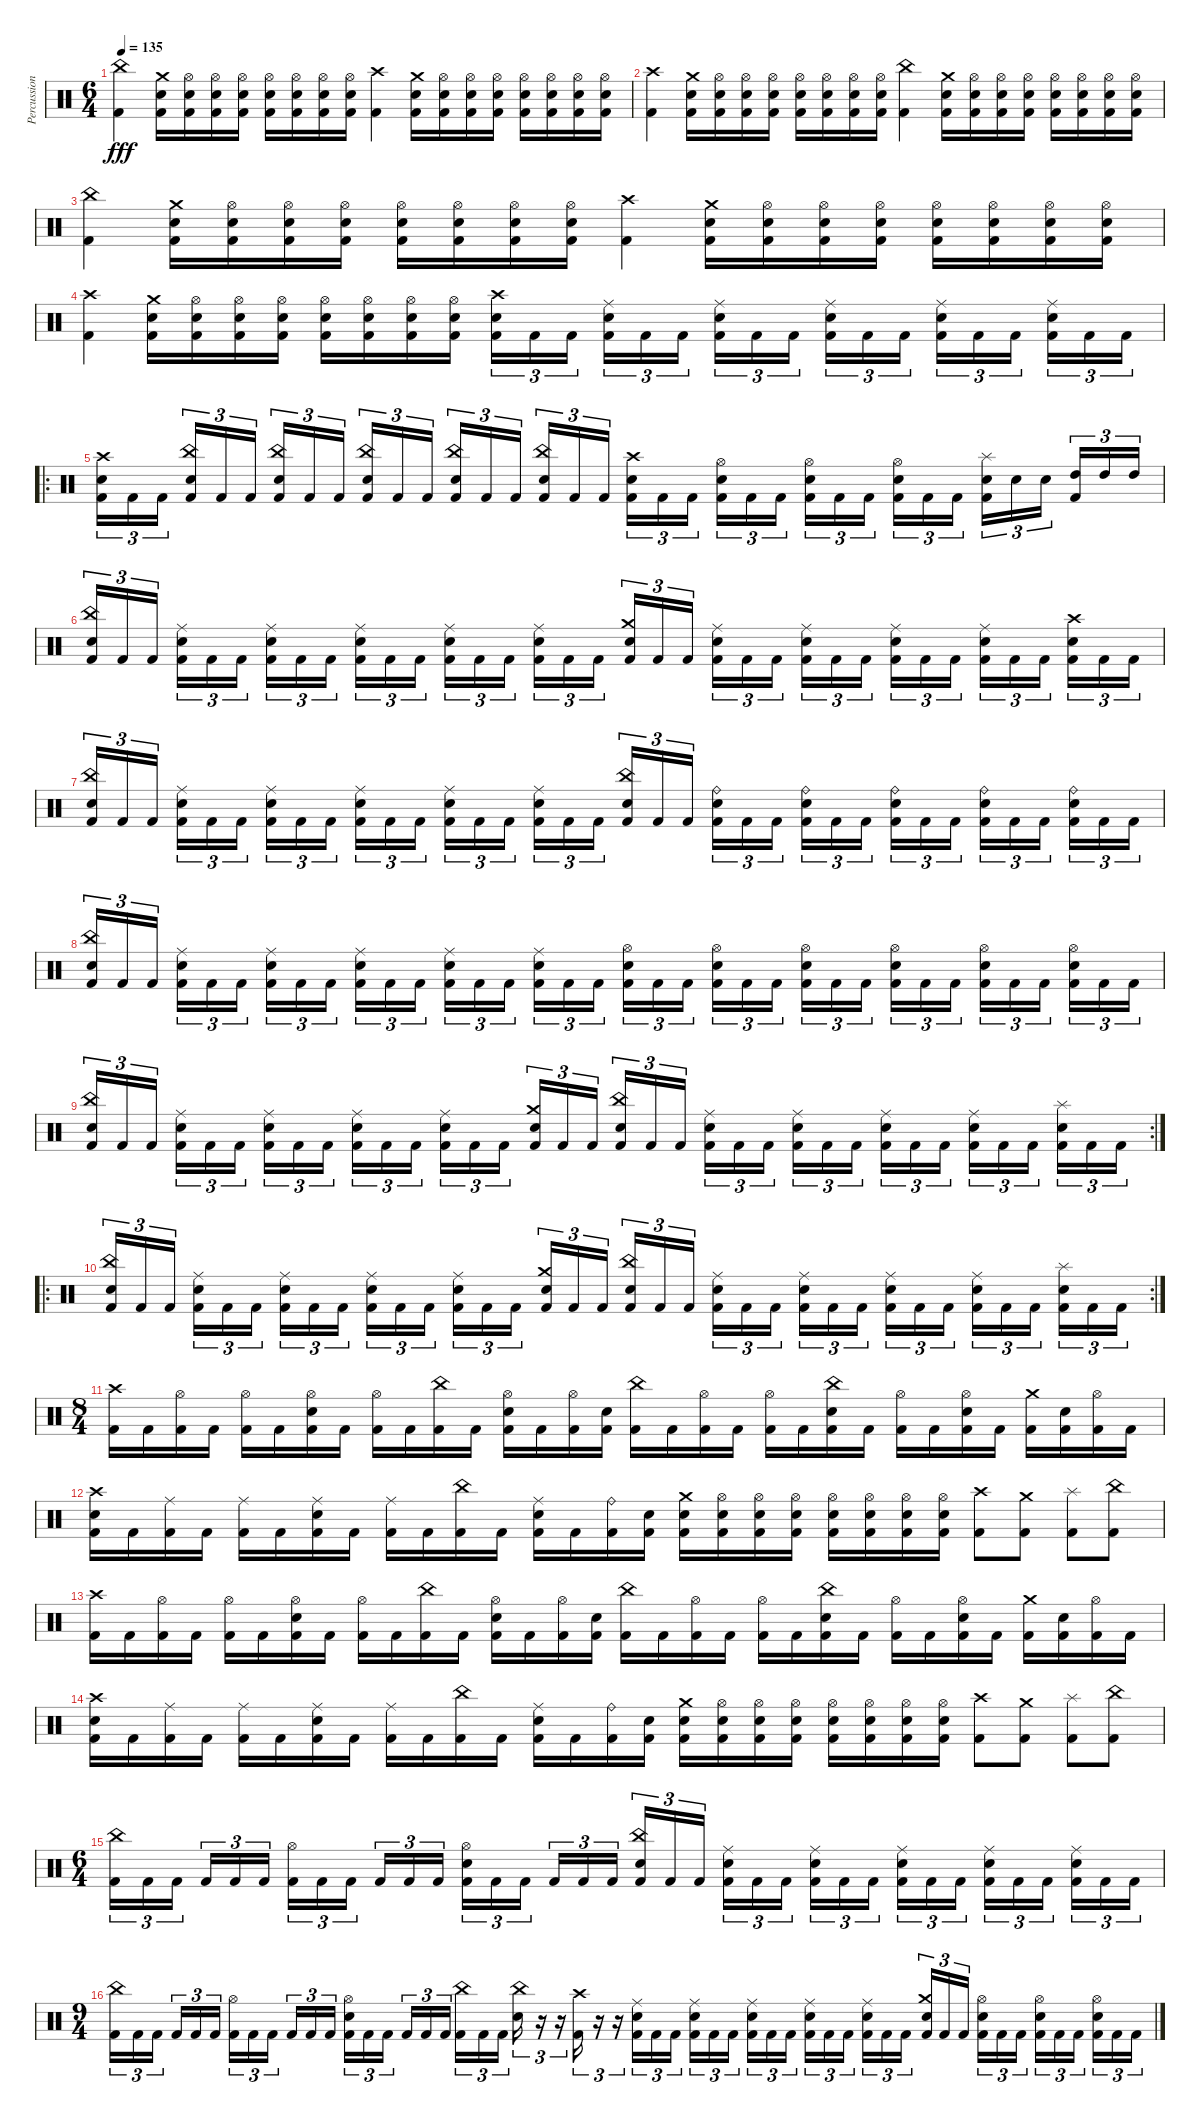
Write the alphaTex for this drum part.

\track ("Percussion" "Percussion") {instrument percussion}
\staff {score}
\articulation defaults
\ts (6 4)
\tempo 135
\clef neutral
\ks c
("Kick (hit) 2" "China (hit)").4{dy fff} ("Crash medium (hit)" "Kick (hit) 2" "Electric Snare (hit)").16 ("Hi-Hat (open)" "Kick (hit) 2" "Electric Snare (hit)").16 ("Hi-Hat (open)" "Kick (hit) 2" "Electric Snare (hit)").16 ("Hi-Hat (open)" "Kick (hit) 2" "Electric Snare (hit)").16 ("Hi-Hat (open)" "Kick (hit) 2" "Electric Snare (hit)").16 ("Hi-Hat (open)" "Kick (hit) 2" "Electric Snare (hit)").16 ("Hi-Hat (open)" "Kick (hit) 2" "Electric Snare (hit)").16 ("Hi-Hat (open)" "Kick (hit) 2" "Electric Snare (hit)").16 ("Kick (hit) 2" "Crash high (hit)").4 ("Crash medium (hit)" "Kick (hit) 2" "Electric Snare (hit)").16 ("Hi-Hat (open)" "Kick (hit) 2" "Electric Snare (hit)").16 ("Hi-Hat (open)" "Kick (hit) 2" "Electric Snare (hit)").16 ("Hi-Hat (open)" "Kick (hit) 2" "Electric Snare (hit)").16 ("Hi-Hat (open)" "Kick (hit) 2" "Electric Snare (hit)").16 ("Hi-Hat (open)" "Kick (hit) 2" "Electric Snare (hit)").16 ("Hi-Hat (open)" "Kick (hit) 2" "Electric Snare (hit)").16 ("Hi-Hat (open)" "Kick (hit) 2" "Electric Snare (hit)").16 |
("Kick (hit) 2" "Crash high (hit)").4 ("Crash medium (hit)" "Kick (hit) 2" "Electric Snare (hit)").16 ("Hi-Hat (open)" "Kick (hit) 2" "Electric Snare (hit)").16 ("Hi-Hat (open)" "Kick (hit) 2" "Electric Snare (hit)").16 ("Hi-Hat (open)" "Kick (hit) 2" "Electric Snare (hit)").16 ("Hi-Hat (open)" "Kick (hit) 2" "Electric Snare (hit)").16 ("Hi-Hat (open)" "Kick (hit) 2" "Electric Snare (hit)").16 ("Hi-Hat (open)" "Kick (hit) 2" "Electric Snare (hit)").16 ("Hi-Hat (open)" "Kick (hit) 2" "Electric Snare (hit)").16 ("Kick (hit) 2" "China (hit)").4 ("Crash medium (hit)" "Kick (hit) 2" "Electric Snare (hit)").16 ("Hi-Hat (open)" "Kick (hit) 2" "Electric Snare (hit)").16 ("Hi-Hat (open)" "Kick (hit) 2" "Electric Snare (hit)").16 ("Hi-Hat (open)" "Kick (hit) 2" "Electric Snare (hit)").16 ("Hi-Hat (open)" "Kick (hit) 2" "Electric Snare (hit)").16 ("Hi-Hat (open)" "Kick (hit) 2" "Electric Snare (hit)").16 ("Hi-Hat (open)" "Kick (hit) 2" "Electric Snare (hit)").16 ("Hi-Hat (open)" "Kick (hit) 2" "Electric Snare (hit)").16 |
("Kick (hit) 2" "China (hit)").4 ("Crash medium (hit)" "Kick (hit) 2" "Electric Snare (hit)").16 ("Hi-Hat (open)" "Kick (hit) 2" "Electric Snare (hit)").16 ("Hi-Hat (open)" "Kick (hit) 2" "Electric Snare (hit)").16 ("Hi-Hat (open)" "Kick (hit) 2" "Electric Snare (hit)").16 ("Hi-Hat (open)" "Kick (hit) 2" "Electric Snare (hit)").16 ("Hi-Hat (open)" "Kick (hit) 2" "Electric Snare (hit)").16 ("Hi-Hat (open)" "Kick (hit) 2" "Electric Snare (hit)").16 ("Hi-Hat (open)" "Kick (hit) 2" "Electric Snare (hit)").16 ("Kick (hit) 2" "Crash high (hit)").4 ("Crash medium (hit)" "Kick (hit) 2" "Electric Snare (hit)").16 ("Hi-Hat (open)" "Kick (hit) 2" "Electric Snare (hit)").16 ("Hi-Hat (open)" "Kick (hit) 2" "Electric Snare (hit)").16 ("Hi-Hat (open)" "Kick (hit) 2" "Electric Snare (hit)").16 ("Hi-Hat (open)" "Kick (hit) 2" "Electric Snare (hit)").16 ("Hi-Hat (open)" "Kick (hit) 2" "Electric Snare (hit)").16 ("Hi-Hat (open)" "Kick (hit) 2" "Electric Snare (hit)").16 ("Hi-Hat (open)" "Kick (hit) 2" "Electric Snare (hit)").16 |
("Kick (hit) 2" "Crash high (hit)").4 ("Crash medium (hit)" "Kick (hit) 2" "Electric Snare (hit)").16 ("Hi-Hat (open)" "Kick (hit) 2" "Electric Snare (hit)").16 ("Hi-Hat (open)" "Kick (hit) 2" "Electric Snare (hit)").16 ("Hi-Hat (open)" "Kick (hit) 2" "Electric Snare (hit)").16 ("Hi-Hat (open)" "Kick (hit) 2" "Electric Snare (hit)").16 ("Hi-Hat (open)" "Kick (hit) 2" "Electric Snare (hit)").16 ("Hi-Hat (open)" "Kick (hit) 2" "Electric Snare (hit)").16 ("Hi-Hat (open)" "Kick (hit) 2" "Electric Snare (hit)").16 ("Crash high (hit)" "Electric Snare (hit)" "Kick (hit) 2").16{tu (3 2)} "Kick (hit) 2".16{tu (3 2)} "Kick (hit) 2".16{tu (3 2) beam splitsecondary} ("Ride (middle)" "Electric Snare (hit)" "Kick (hit) 2").16{tu (3 2)} "Kick (hit) 2".16{tu (3 2)} "Kick (hit) 2".16{tu (3 2) beam splitsecondary} ("Ride (middle)" "Electric Snare (hit)" "Kick (hit) 2").16{tu (3 2)} "Kick (hit) 2".16{tu (3 2)} "Kick (hit) 2".16{tu (3 2) beam splitsecondary} ("Ride (middle)" "Electric Snare (hit)" "Kick (hit) 2").16{tu (3 2)} "Kick (hit) 2".16{tu (3 2)} "Kick (hit) 2".16{tu (3 2) beam splitsecondary} ("Ride (middle)" "Electric Snare (hit)" "Kick (hit) 2").16{tu (3 2)} "Kick (hit) 2".16{tu (3 2)} "Kick (hit) 2".16{tu (3 2) beam splitsecondary} ("Ride (middle)" "Electric Snare (hit)" "Kick (hit) 2").16{tu (3 2)} "Kick (hit) 2".16{tu (3 2)} "Kick (hit) 2".16{tu (3 2)} |
\ro
("Crash high (hit)" "Electric Snare (hit)" "Kick (hit) 2").16{tu (3 2)} "Kick (hit) 2".16{tu (3 2)} "Kick (hit) 2".16{tu (3 2) beam splitsecondary} ("China (hit)" "Electric Snare (hit)" "Kick (hit) 2").16{tu (3 2)} "Kick (hit) 2".16{tu (3 2)} "Kick (hit) 2".16{tu (3 2) beam splitsecondary} ("China (hit)" "Electric Snare (hit)" "Kick (hit) 2").16{tu (3 2)} "Kick (hit) 2".16{tu (3 2)} "Kick (hit) 2".16{tu (3 2) beam splitsecondary} ("China (hit)" "Electric Snare (hit)" "Kick (hit) 2").16{tu (3 2)} "Kick (hit) 2".16{tu (3 2)} "Kick (hit) 2".16{tu (3 2) beam splitsecondary} ("China (hit)" "Electric Snare (hit)" "Kick (hit) 2").16{tu (3 2)} "Kick (hit) 2".16{tu (3 2)} "Kick (hit) 2".16{tu (3 2) beam splitsecondary} ("China (hit)" "Electric Snare (hit)" "Kick (hit) 2").16{tu (3 2)} "Kick (hit) 2".16{tu (3 2)} "Kick (hit) 2".16{tu (3 2)} ("Crash high (hit)" "Electric Snare (hit)" "Kick (hit) 2").16{tu (3 2)} "Kick (hit) 2".16{tu (3 2)} "Kick (hit) 2".16{tu (3 2) beam splitsecondary} ("Hi-Hat (open)" "Electric Snare (hit)" "Kick (hit) 2").16{tu (3 2)} "Kick (hit) 2".16{tu (3 2)} "Kick (hit) 2".16{tu (3 2) beam splitsecondary} ("Hi-Hat (open)" "Electric Snare (hit)" "Kick (hit) 2").16{tu (3 2)} "Kick (hit) 2".16{tu (3 2)} "Kick (hit) 2".16{tu (3 2) beam splitsecondary} ("Hi-Hat (open)" "Electric Snare (hit)" "Kick (hit) 2").16{tu (3 2)} "Kick (hit) 2".16{tu (3 2)} "Kick (hit) 2".16{tu (3 2) beam splitsecondary} ("Splash (hit)" "Electric Snare (hit)" "Kick (hit) 2").16{tu (3 2)} "Electric Snare (hit)".16{tu (3 2)} "Electric Snare (hit)".16{tu (3 2) beam splitsecondary} ("High Tom (hit)" "Kick (hit) 2").16{tu (3 2)} "High Tom (hit)".16{tu (3 2)} "High Tom (hit)".16{tu (3 2)} |
("China (hit)" "Electric Snare (hit)" "Kick (hit) 2").16{tu (3 2)} "Kick (hit) 2".16{tu (3 2)} "Kick (hit) 2".16{tu (3 2) beam splitsecondary} ("Ride (middle)" "Electric Snare (hit)" "Kick (hit) 2").16{tu (3 2)} "Kick (hit) 2".16{tu (3 2)} "Kick (hit) 2".16{tu (3 2) beam splitsecondary} ("Ride (middle)" "Electric Snare (hit)" "Kick (hit) 2").16{tu (3 2)} "Kick (hit) 2".16{tu (3 2)} "Kick (hit) 2".16{tu (3 2) beam splitsecondary} ("Ride (middle)" "Electric Snare (hit)" "Kick (hit) 2").16{tu (3 2)} "Kick (hit) 2".16{tu (3 2)} "Kick (hit) 2".16{tu (3 2) beam splitsecondary} ("Ride (middle)" "Electric Snare (hit)" "Kick (hit) 2").16{tu (3 2)} "Kick (hit) 2".16{tu (3 2)} "Kick (hit) 2".16{tu (3 2) beam splitsecondary} ("Ride (middle)" "Electric Snare (hit)" "Kick (hit) 2").16{tu (3 2)} "Kick (hit) 2".16{tu (3 2)} "Kick (hit) 2".16{tu (3 2)} ("Crash medium (hit)" "Electric Snare (hit)" "Kick (hit) 2").16{tu (3 2)} "Kick (hit) 2".16{tu (3 2)} "Kick (hit) 2".16{tu (3 2) beam splitsecondary} ("Ride (middle)" "Electric Snare (hit)" "Kick (hit) 2").16{tu (3 2)} "Kick (hit) 2".16{tu (3 2)} "Kick (hit) 2".16{tu (3 2) beam splitsecondary} ("Ride (middle)" "Electric Snare (hit)" "Kick (hit) 2").16{tu (3 2)} "Kick (hit) 2".16{tu (3 2)} "Kick (hit) 2".16{tu (3 2) beam splitsecondary} ("Ride (middle)" "Electric Snare (hit)" "Kick (hit) 2").16{tu (3 2)} "Kick (hit) 2".16{tu (3 2)} "Kick (hit) 2".16{tu (3 2) beam splitsecondary} ("Ride (middle)" "Electric Snare (hit)" "Kick (hit) 2").16{tu (3 2)} "Kick (hit) 2".16{tu (3 2)} "Kick (hit) 2".16{tu (3 2) beam splitsecondary} ("Crash high (hit)" "Electric Snare (hit)" "Kick (hit) 2").16{tu (3 2)} "Kick (hit) 2".16{tu (3 2)} "Kick (hit) 2".16{tu (3 2)} |
("China (hit)" "Electric Snare (hit)" "Kick (hit) 2").16{tu (3 2)} "Kick (hit) 2".16{tu (3 2)} "Kick (hit) 2".16{tu (3 2) beam splitsecondary} ("Ride (middle)" "Electric Snare (hit)" "Kick (hit) 2").16{tu (3 2)} "Kick (hit) 2".16{tu (3 2)} "Kick (hit) 2".16{tu (3 2) beam splitsecondary} ("Ride (middle)" "Electric Snare (hit)" "Kick (hit) 2").16{tu (3 2)} "Kick (hit) 2".16{tu (3 2)} "Kick (hit) 2".16{tu (3 2) beam splitsecondary} ("Ride (middle)" "Electric Snare (hit)" "Kick (hit) 2").16{tu (3 2)} "Kick (hit) 2".16{tu (3 2)} "Kick (hit) 2".16{tu (3 2) beam splitsecondary} ("Ride (middle)" "Electric Snare (hit)" "Kick (hit) 2").16{tu (3 2)} "Kick (hit) 2".16{tu (3 2)} "Kick (hit) 2".16{tu (3 2) beam splitsecondary} ("Ride (middle)" "Electric Snare (hit)" "Kick (hit) 2").16{tu (3 2)} "Kick (hit) 2".16{tu (3 2)} "Kick (hit) 2".16{tu (3 2)} ("China (hit)" "Electric Snare (hit)" "Kick (hit) 2").16{tu (3 2)} "Kick (hit) 2".16{tu (3 2)} "Kick (hit) 2".16{tu (3 2) beam splitsecondary} ("Ride (bell)" "Electric Snare (hit)" "Kick (hit) 2").16{tu (3 2)} "Kick (hit) 2".16{tu (3 2)} "Kick (hit) 2".16{tu (3 2) beam splitsecondary} ("Ride (bell)" "Electric Snare (hit)" "Kick (hit) 2").16{tu (3 2)} "Kick (hit) 2".16{tu (3 2)} "Kick (hit) 2".16{tu (3 2) beam splitsecondary} ("Ride (bell)" "Electric Snare (hit)" "Kick (hit) 2").16{tu (3 2)} "Kick (hit) 2".16{tu (3 2)} "Kick (hit) 2".16{tu (3 2) beam splitsecondary} ("Ride (bell)" "Electric Snare (hit)" "Kick (hit) 2").16{tu (3 2)} "Kick (hit) 2".16{tu (3 2)} "Kick (hit) 2".16{tu (3 2) beam splitsecondary} ("Ride (bell)" "Electric Snare (hit)" "Kick (hit) 2").16{tu (3 2)} "Kick (hit) 2".16{tu (3 2)} "Kick (hit) 2".16{tu (3 2)} |
("China (hit)" "Electric Snare (hit)" "Kick (hit) 2").16{tu (3 2)} "Kick (hit) 2".16{tu (3 2)} "Kick (hit) 2".16{tu (3 2) beam splitsecondary} ("Ride (middle)" "Electric Snare (hit)" "Kick (hit) 2").16{tu (3 2)} "Kick (hit) 2".16{tu (3 2)} "Kick (hit) 2".16{tu (3 2) beam splitsecondary} ("Ride (middle)" "Electric Snare (hit)" "Kick (hit) 2").16{tu (3 2)} "Kick (hit) 2".16{tu (3 2)} "Kick (hit) 2".16{tu (3 2) beam splitsecondary} ("Ride (middle)" "Electric Snare (hit)" "Kick (hit) 2").16{tu (3 2)} "Kick (hit) 2".16{tu (3 2)} "Kick (hit) 2".16{tu (3 2) beam splitsecondary} ("Ride (middle)" "Electric Snare (hit)" "Kick (hit) 2").16{tu (3 2)} "Kick (hit) 2".16{tu (3 2)} "Kick (hit) 2".16{tu (3 2) beam splitsecondary} ("Ride (middle)" "Electric Snare (hit)" "Kick (hit) 2").16{tu (3 2)} "Kick (hit) 2".16{tu (3 2)} "Kick (hit) 2".16{tu (3 2)} ("Hi-Hat (open)" "Electric Snare (hit)" "Kick (hit) 2").16{tu (3 2)} "Kick (hit) 2".16{tu (3 2)} "Kick (hit) 2".16{tu (3 2) beam splitsecondary} ("Hi-Hat (open)" "Electric Snare (hit)" "Kick (hit) 2").16{tu (3 2)} "Kick (hit) 2".16{tu (3 2)} "Kick (hit) 2".16{tu (3 2) beam splitsecondary} ("Hi-Hat (open)" "Electric Snare (hit)" "Kick (hit) 2").16{tu (3 2)} "Kick (hit) 2".16{tu (3 2)} "Kick (hit) 2".16{tu (3 2) beam splitsecondary} ("Hi-Hat (open)" "Electric Snare (hit)" "Kick (hit) 2").16{tu (3 2)} "Kick (hit) 2".16{tu (3 2)} "Kick (hit) 2".16{tu (3 2) beam splitsecondary} ("Hi-Hat (open)" "Electric Snare (hit)" "Kick (hit) 2").16{tu (3 2)} "Kick (hit) 2".16{tu (3 2)} "Kick (hit) 2".16{tu (3 2) beam splitsecondary} ("Hi-Hat (open)" "Electric Snare (hit)" "Kick (hit) 2").16{tu (3 2)} "Kick (hit) 2".16{tu (3 2)} "Kick (hit) 2".16{tu (3 2)} |
\rc 2
("China (hit)" "Electric Snare (hit)" "Kick (hit) 2").16{tu (3 2)} "Kick (hit) 2".16{tu (3 2)} "Kick (hit) 2".16{tu (3 2) beam splitsecondary} ("Ride (middle)" "Electric Snare (hit)" "Kick (hit) 2").16{tu (3 2)} "Kick (hit) 2".16{tu (3 2)} "Kick (hit) 2".16{tu (3 2) beam splitsecondary} ("Ride (middle)" "Electric Snare (hit)" "Kick (hit) 2").16{tu (3 2)} "Kick (hit) 2".16{tu (3 2)} "Kick (hit) 2".16{tu (3 2) beam splitsecondary} ("Ride (middle)" "Electric Snare (hit)" "Kick (hit) 2").16{tu (3 2)} "Kick (hit) 2".16{tu (3 2)} "Kick (hit) 2".16{tu (3 2) beam splitsecondary} ("Ride (middle)" "Electric Snare (hit)" "Kick (hit) 2").16{tu (3 2)} "Kick (hit) 2".16{tu (3 2)} "Kick (hit) 2".16{tu (3 2) beam splitsecondary} ("Crash medium (hit)" "Electric Snare (hit)" "Kick (hit) 2").16{tu (3 2)} "Kick (hit) 2".16{tu (3 2)} "Kick (hit) 2".16{tu (3 2)} ("China (hit)" "Electric Snare (hit)" "Kick (hit) 2").16{tu (3 2)} "Kick (hit) 2".16{tu (3 2)} "Kick (hit) 2".16{tu (3 2) beam splitsecondary} ("Ride (middle)" "Electric Snare (hit)" "Kick (hit) 2").16{tu (3 2)} "Kick (hit) 2".16{tu (3 2)} "Kick (hit) 2".16{tu (3 2) beam splitsecondary} ("Ride (middle)" "Electric Snare (hit)" "Kick (hit) 2").16{tu (3 2)} "Kick (hit) 2".16{tu (3 2)} "Kick (hit) 2".16{tu (3 2) beam splitsecondary} ("Ride (middle)" "Electric Snare (hit)" "Kick (hit) 2").16{tu (3 2)} "Kick (hit) 2".16{tu (3 2)} "Kick (hit) 2".16{tu (3 2) beam splitsecondary} ("Ride (middle)" "Electric Snare (hit)" "Kick (hit) 2").16{tu (3 2)} "Kick (hit) 2".16{tu (3 2)} "Kick (hit) 2".16{tu (3 2) beam splitsecondary} ("Splash (hit)" "Electric Snare (hit)" "Kick (hit) 2").16{tu (3 2)} "Kick (hit) 2".16{tu (3 2)} "Kick (hit) 2".16{tu (3 2)} |
\ro
\rc 2
("China (hit)" "Electric Snare (hit)" "Kick (hit) 2").16{tu (3 2)} "Kick (hit) 2".16{tu (3 2)} "Kick (hit) 2".16{tu (3 2) beam splitsecondary} ("Ride (middle)" "Electric Snare (hit)" "Kick (hit) 2").16{tu (3 2)} "Kick (hit) 2".16{tu (3 2)} "Kick (hit) 2".16{tu (3 2) beam splitsecondary} ("Ride (middle)" "Electric Snare (hit)" "Kick (hit) 2").16{tu (3 2)} "Kick (hit) 2".16{tu (3 2)} "Kick (hit) 2".16{tu (3 2) beam splitsecondary} ("Ride (middle)" "Electric Snare (hit)" "Kick (hit) 2").16{tu (3 2)} "Kick (hit) 2".16{tu (3 2)} "Kick (hit) 2".16{tu (3 2) beam splitsecondary} ("Ride (middle)" "Electric Snare (hit)" "Kick (hit) 2").16{tu (3 2)} "Kick (hit) 2".16{tu (3 2)} "Kick (hit) 2".16{tu (3 2) beam splitsecondary} ("Crash medium (hit)" "Electric Snare (hit)" "Kick (hit) 2").16{tu (3 2)} "Kick (hit) 2".16{tu (3 2)} "Kick (hit) 2".16{tu (3 2)} ("China (hit)" "Electric Snare (hit)" "Kick (hit) 2").16{tu (3 2)} "Kick (hit) 2".16{tu (3 2)} "Kick (hit) 2".16{tu (3 2) beam splitsecondary} ("Ride (middle)" "Electric Snare (hit)" "Kick (hit) 2").16{tu (3 2)} "Kick (hit) 2".16{tu (3 2)} "Kick (hit) 2".16{tu (3 2) beam splitsecondary} ("Ride (middle)" "Electric Snare (hit)" "Kick (hit) 2").16{tu (3 2)} "Kick (hit) 2".16{tu (3 2)} "Kick (hit) 2".16{tu (3 2) beam splitsecondary} ("Ride (middle)" "Electric Snare (hit)" "Kick (hit) 2").16{tu (3 2)} "Kick (hit) 2".16{tu (3 2)} "Kick (hit) 2".16{tu (3 2) beam splitsecondary} ("Ride (middle)" "Electric Snare (hit)" "Kick (hit) 2").16{tu (3 2)} "Kick (hit) 2".16{tu (3 2)} "Kick (hit) 2".16{tu (3 2) beam splitsecondary} ("Splash (hit)" "Electric Snare (hit)" "Kick (hit) 2").16{tu (3 2)} "Kick (hit) 2".16{tu (3 2)} "Kick (hit) 2".16{tu (3 2)} |
\ts (8 4)
("Crash high (hit)" "Kick (hit) 2").16 "Kick (hit) 2".16 ("Hi-Hat (open)" "Kick (hit) 2").16 "Kick (hit) 2".16 ("Hi-Hat (open)" "Kick (hit) 2").16 "Kick (hit) 2".16 ("Electric Snare (hit)" "Hi-Hat (open)" "Kick (hit) 2").16 "Kick (hit) 2".16 ("Hi-Hat (open)" "Kick (hit) 2").16 "Kick (hit) 2".16 ("China (hit)" "Kick (hit) 2").16 "Kick (hit) 2".16 ("Electric Snare (hit)" "Hi-Hat (open)" "Kick (hit) 2").16 "Kick (hit) 2".16 ("Hi-Hat (open)" "Kick (hit) 2").16 ("Electric Snare (hit)" "Kick (hit) 2").16 ("China (hit)" "Kick (hit) 2").16 "Kick (hit) 2".16 ("Hi-Hat (open)" "Kick (hit) 2").16 "Kick (hit) 2".16 ("Hi-Hat (open)" "Kick (hit) 2").16 "Kick (hit) 2".16 ("China (hit)" "Electric Snare (hit)" "Kick (hit) 2").16 "Kick (hit) 2".16 ("Hi-Hat (open)" "Kick (hit) 2").16 "Kick (hit) 2".16 ("Hi-Hat (open)" "Electric Snare (hit)" "Kick (hit) 2").16 "Kick (hit) 2".16 ("Crash medium (hit)" "Kick (hit) 2").16 ("Electric Snare (hit)" "Kick (hit) 2").16 ("Hi-Hat (open)" "Kick (hit) 2").16 "Kick (hit) 2".16 |
("Electric Snare (hit)" "Crash high (hit)" "Kick (hit) 2").16 "Kick (hit) 2".16 ("Ride (middle)" "Kick (hit) 2").16 "Kick (hit) 2".16 ("Ride (middle)" "Kick (hit) 2").16 "Kick (hit) 2".16 ("Electric Snare (hit)" "Ride (middle)" "Kick (hit) 2").16 "Kick (hit) 2".16 ("Ride (middle)" "Kick (hit) 2").16 "Kick (hit) 2".16 ("China (hit)" "Kick (hit) 2").16 "Kick (hit) 2".16 ("Electric Snare (hit)" "Ride (middle)" "Kick (hit) 2").16 "Kick (hit) 2".16 ("Ride (bell)" "Kick (hit) 2").16 ("Electric Snare (hit)" "Kick (hit) 2").16 ("Crash medium (hit)" "Kick (hit) 2" "Electric Snare (hit)").16 ("Hi-Hat (open)" "Kick (hit) 2" "Electric Snare (hit)").16 ("Hi-Hat (open)" "Kick (hit) 2" "Electric Snare (hit)").16 ("Hi-Hat (open)" "Kick (hit) 2" "Electric Snare (hit)").16 ("Hi-Hat (open)" "Kick (hit) 2" "Electric Snare (hit)").16 ("Hi-Hat (open)" "Kick (hit) 2" "Electric Snare (hit)").16 ("Hi-Hat (open)" "Kick (hit) 2" "Electric Snare (hit)").16 ("Hi-Hat (open)" "Kick (hit) 2" "Electric Snare (hit)").16 ("Crash high (hit)" "Kick (hit) 2").8 ("Crash medium (hit)" "Kick (hit) 2").8 ("Splash (hit)" "Kick (hit) 2").8 ("China (hit)" "Kick (hit) 2").8 |
("Crash high (hit)" "Kick (hit) 2").16 "Kick (hit) 2".16 ("Hi-Hat (open)" "Kick (hit) 2").16 "Kick (hit) 2".16 ("Hi-Hat (open)" "Kick (hit) 2").16 "Kick (hit) 2".16 ("Electric Snare (hit)" "Hi-Hat (open)" "Kick (hit) 2").16 "Kick (hit) 2".16 ("Hi-Hat (open)" "Kick (hit) 2").16 "Kick (hit) 2".16 ("China (hit)" "Kick (hit) 2").16 "Kick (hit) 2".16 ("Electric Snare (hit)" "Hi-Hat (open)" "Kick (hit) 2").16 "Kick (hit) 2".16 ("Hi-Hat (open)" "Kick (hit) 2").16 ("Electric Snare (hit)" "Kick (hit) 2").16 ("China (hit)" "Kick (hit) 2").16 "Kick (hit) 2".16 ("Hi-Hat (open)" "Kick (hit) 2").16 "Kick (hit) 2".16 ("Hi-Hat (open)" "Kick (hit) 2").16 "Kick (hit) 2".16 ("China (hit)" "Electric Snare (hit)" "Kick (hit) 2").16 "Kick (hit) 2".16 ("Hi-Hat (open)" "Kick (hit) 2").16 "Kick (hit) 2".16 ("Hi-Hat (open)" "Electric Snare (hit)" "Kick (hit) 2").16 "Kick (hit) 2".16 ("Crash medium (hit)" "Kick (hit) 2").16 ("Electric Snare (hit)" "Kick (hit) 2").16 ("Hi-Hat (open)" "Kick (hit) 2").16 "Kick (hit) 2".16 |
("Electric Snare (hit)" "Crash high (hit)" "Kick (hit) 2").16 "Kick (hit) 2".16 ("Ride (middle)" "Kick (hit) 2").16 "Kick (hit) 2".16 ("Ride (middle)" "Kick (hit) 2").16 "Kick (hit) 2".16 ("Electric Snare (hit)" "Ride (middle)" "Kick (hit) 2").16 "Kick (hit) 2".16 ("Ride (middle)" "Kick (hit) 2").16 "Kick (hit) 2".16 ("China (hit)" "Kick (hit) 2").16 "Kick (hit) 2".16 ("Electric Snare (hit)" "Ride (middle)" "Kick (hit) 2").16 "Kick (hit) 2".16 ("Ride (bell)" "Kick (hit) 2").16 ("Electric Snare (hit)" "Kick (hit) 2").16 ("Crash medium (hit)" "Kick (hit) 2" "Electric Snare (hit)").16 ("Hi-Hat (open)" "Kick (hit) 2" "Electric Snare (hit)").16 ("Hi-Hat (open)" "Kick (hit) 2" "Electric Snare (hit)").16 ("Hi-Hat (open)" "Kick (hit) 2" "Electric Snare (hit)").16 ("Hi-Hat (open)" "Kick (hit) 2" "Electric Snare (hit)").16 ("Hi-Hat (open)" "Kick (hit) 2" "Electric Snare (hit)").16 ("Hi-Hat (open)" "Kick (hit) 2" "Electric Snare (hit)").16 ("Hi-Hat (open)" "Kick (hit) 2" "Electric Snare (hit)").16 ("Crash high (hit)" "Kick (hit) 2").8 ("Crash medium (hit)" "Kick (hit) 2").8 ("Splash (hit)" "Kick (hit) 2").8 ("China (hit)" "Kick (hit) 2").8 |
\ts (6 4)
("China (hit)" "Kick (hit) 2").16{tu (3 2)} "Kick (hit) 2".16{tu (3 2)} "Kick (hit) 2".16{tu (3 2) beam splitsecondary} "Kick (hit) 2".16{tu (3 2)} "Kick (hit) 2".16{tu (3 2)} "Kick (hit) 2".16{tu (3 2) beam splitsecondary} ("Hi-Hat (open)" "Kick (hit) 2").16{tu (3 2)} "Kick (hit) 2".16{tu (3 2)} "Kick (hit) 2".16{tu (3 2) beam splitsecondary} "Kick (hit) 2".16{tu (3 2)} "Kick (hit) 2".16{tu (3 2)} "Kick (hit) 2".16{tu (3 2) beam splitsecondary} ("Hi-Hat (open)" "Electric Snare (hit)" "Kick (hit) 2").16{tu (3 2)} "Kick (hit) 2".16{tu (3 2)} "Kick (hit) 2".16{tu (3 2) beam splitsecondary} "Kick (hit) 2".16{tu (3 2)} "Kick (hit) 2".16{tu (3 2)} "Kick (hit) 2".16{tu (3 2)} ("China (hit)" "Electric Snare (hit)" "Kick (hit) 2").16{tu (3 2)} "Kick (hit) 2".16{tu (3 2)} "Kick (hit) 2".16{tu (3 2) beam splitsecondary} ("Ride (middle)" "Electric Snare (hit)" "Kick (hit) 2").16{tu (3 2)} "Kick (hit) 2".16{tu (3 2)} "Kick (hit) 2".16{tu (3 2) beam splitsecondary} ("Ride (middle)" "Electric Snare (hit)" "Kick (hit) 2").16{tu (3 2)} "Kick (hit) 2".16{tu (3 2)} "Kick (hit) 2".16{tu (3 2) beam splitsecondary} ("Ride (middle)" "Electric Snare (hit)" "Kick (hit) 2").16{tu (3 2)} "Kick (hit) 2".16{tu (3 2)} "Kick (hit) 2".16{tu (3 2) beam splitsecondary} ("Ride (middle)" "Electric Snare (hit)" "Kick (hit) 2").16{tu (3 2)} "Kick (hit) 2".16{tu (3 2)} "Kick (hit) 2".16{tu (3 2) beam splitsecondary} ("Ride (middle)" "Electric Snare (hit)" "Kick (hit) 2").16{tu (3 2)} "Kick (hit) 2".16{tu (3 2)} "Kick (hit) 2".16{tu (3 2)} |
\ts (9 4)
("China (hit)" "Kick (hit) 2").16{tu (3 2)} "Kick (hit) 2".16{tu (3 2)} "Kick (hit) 2".16{tu (3 2) beam splitsecondary} "Kick (hit) 2".16{tu (3 2)} "Kick (hit) 2".16{tu (3 2)} "Kick (hit) 2".16{tu (3 2) beam splitsecondary} ("Hi-Hat (open)" "Kick (hit) 2").16{tu (3 2)} "Kick (hit) 2".16{tu (3 2)} "Kick (hit) 2".16{tu (3 2) beam splitsecondary} "Kick (hit) 2".16{tu (3 2)} "Kick (hit) 2".16{tu (3 2)} "Kick (hit) 2".16{tu (3 2) beam splitsecondary} ("Hi-Hat (open)" "Electric Snare (hit)" "Kick (hit) 2").16{tu (3 2)} "Kick (hit) 2".16{tu (3 2)} "Kick (hit) 2".16{tu (3 2) beam splitsecondary} "Kick (hit) 2".16{tu (3 2)} "Kick (hit) 2".16{tu (3 2)} "Kick (hit) 2".16{tu (3 2)} ("China (hit)" "Kick (hit) 2").16{tu (3 2)} "Kick (hit) 2".16{tu (3 2)} "Kick (hit) 2".16{tu (3 2) beam splitsecondary} ("China (hit)" "Electric Snare (hit)").16{tu (3 2)} r.16{tu (3 2)} r.16{tu (3 2)} ("Crash high (hit)" "Kick (hit) 2").16{tu (3 2)} r.16{tu (3 2)} r.16{tu (3 2)} ("Ride (middle)" "Electric Snare (hit)" "Kick (hit) 2").16{tu (3 2)} "Kick (hit) 2".16{tu (3 2)} "Kick (hit) 2".16{tu (3 2) beam splitsecondary} ("Ride (middle)" "Electric Snare (hit)" "Kick (hit) 2").16{tu (3 2)} "Kick (hit) 2".16{tu (3 2)} "Kick (hit) 2".16{tu (3 2) beam splitsecondary} ("Ride (middle)" "Electric Snare (hit)" "Kick (hit) 2").16{tu (3 2)} "Kick (hit) 2".16{tu (3 2)} "Kick (hit) 2".16{tu (3 2)} ("Ride (middle)" "Electric Snare (hit)" "Kick (hit) 2").16{tu (3 2)} "Kick (hit) 2".16{tu (3 2)} "Kick (hit) 2".16{tu (3 2) beam splitsecondary} ("Ride (middle)" "Electric Snare (hit)" "Kick (hit) 2").16{tu (3 2)} "Kick (hit) 2".16{tu (3 2)} "Kick (hit) 2".16{tu (3 2) beam splitsecondary} ("Crash medium (hit)" "Electric Snare (hit)" "Kick (hit) 2").16{tu (3 2)} "Kick (hit) 2".16{tu (3 2)} "Kick (hit) 2".16{tu (3 2) beam splitsecondary} ("Hi-Hat (open)" "Electric Snare (hit)" "Kick (hit) 2").16{tu (3 2)} "Kick (hit) 2".16{tu (3 2)} "Kick (hit) 2".16{tu (3 2) beam splitsecondary} ("Hi-Hat (open)" "Electric Snare (hit)" "Kick (hit) 2").16{tu (3 2)} "Kick (hit) 2".16{tu (3 2)} "Kick (hit) 2".16{tu (3 2) beam splitsecondary} ("Hi-Hat (open)" "Electric Snare (hit)" "Kick (hit) 2").16{tu (3 2)} "Kick (hit) 2".16{tu (3 2)} "Kick (hit) 2".16{tu (3 2)}
